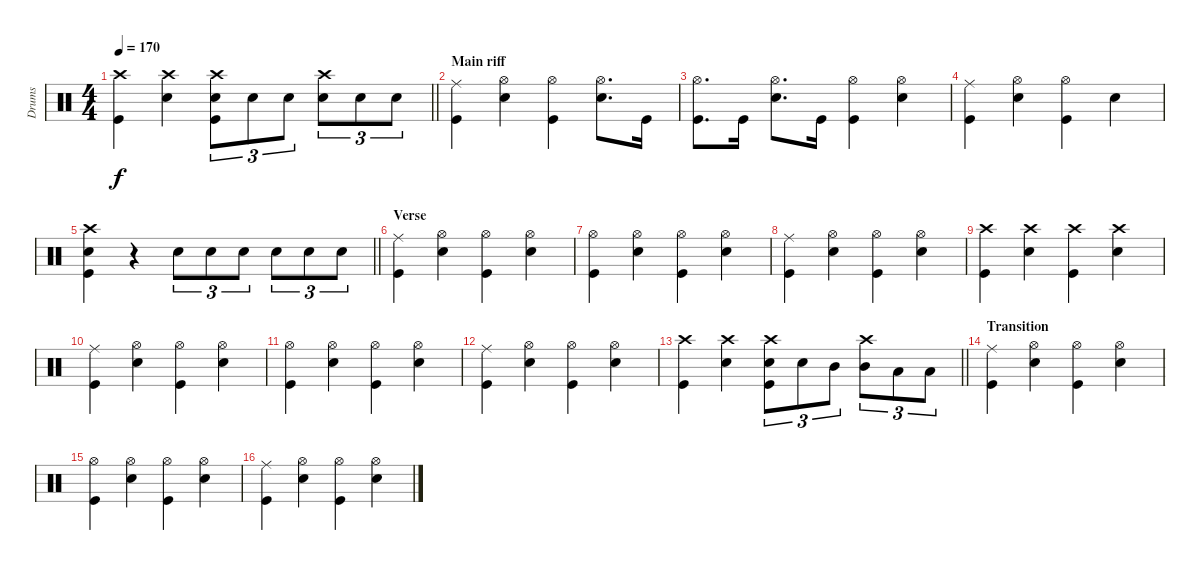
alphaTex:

\track ("Drums" "Drums") {instrument percussion}
\staff {score}
\articulation defaults
\ts (4 4)
\tempo 170
\clef neutral
\barLineRight lightlight
\ks c
("Crash high (hit)" "Kick (hit)").4{dy f} ("Crash high (hit)" "Snare (hit) 2").4 ("Crash high (hit)" "Snare (hit) 2" "Kick (hit)").8{tu (3 2)} "Snare (hit) 2".8{tu (3 2)} "Snare (hit) 2".8{tu (3 2)} ("Crash high (hit)" "Snare (hit) 2").8{tu (3 2)} "Snare (hit) 2".8{tu (3 2)} "Snare (hit) 2".8{tu (3 2)} |
\section ("" "Main riff")
("Ride (middle)" "Kick (hit)").4 ("Hi-Hat (open)" "Snare (hit) 2").4 ("Hi-Hat (open)" "Kick (hit)").4 ("Hi-Hat (open)" "Snare (hit) 2").8{d} "Kick (hit)".16 |
("Hi-Hat (open)" "Kick (hit)").8{d} "Kick (hit)".16 ("Hi-Hat (open)" "Snare (hit) 2").8{d} "Kick (hit)".16 ("Hi-Hat (open)" "Kick (hit)").4 ("Hi-Hat (open)" "Snare (hit) 2").4 |
("Ride (middle)" "Kick (hit)").4 ("Hi-Hat (open)" "Snare (hit) 2").4 ("Hi-Hat (open)" "Kick (hit)").4 "Snare (hit) 2".4 |
\barLineRight lightlight
("Crash high (hit)" "Snare (hit) 2" "Kick (hit)").4 r.4 "Snare (hit) 2".8{tu (3 2)} "Snare (hit) 2".8{tu (3 2)} "Snare (hit) 2".8{tu (3 2)} "Snare (hit) 2".8{tu (3 2)} "Snare (hit) 2".8{tu (3 2)} "Snare (hit) 2".8{tu (3 2)} |
\section ("" "Verse")
("Ride (middle)" "Kick (hit)").4 ("Hi-Hat (open)" "Snare (hit) 2").4 ("Hi-Hat (open)" "Kick (hit)").4 ("Hi-Hat (open)" "Snare (hit) 2").4 |
("Hi-Hat (open)" "Kick (hit)").4 ("Hi-Hat (open)" "Snare (hit) 2").4 ("Hi-Hat (open)" "Kick (hit)").4 ("Hi-Hat (open)" "Snare (hit) 2").4 |
("Ride (middle)" "Kick (hit)").4 ("Hi-Hat (open)" "Snare (hit) 2").4 ("Hi-Hat (open)" "Kick (hit)").4 ("Hi-Hat (open)" "Snare (hit) 2").4 |
("Crash high (hit)" "Kick (hit)").4 ("Crash high (hit)" "Snare (hit) 2").4 ("Crash high (hit)" "Kick (hit)").4 ("Crash high (hit)" "Snare (hit) 2").4 |
("Ride (middle)" "Kick (hit)").4 ("Hi-Hat (open)" "Snare (hit) 2").4 ("Hi-Hat (open)" "Kick (hit)").4 ("Hi-Hat (open)" "Snare (hit) 2").4 |
("Hi-Hat (open)" "Kick (hit)").4 ("Hi-Hat (open)" "Snare (hit) 2").4 ("Hi-Hat (open)" "Kick (hit)").4 ("Hi-Hat (open)" "Snare (hit) 2").4 |
("Ride (middle)" "Kick (hit)").4 ("Hi-Hat (open)" "Snare (hit) 2").4 ("Hi-Hat (open)" "Kick (hit)").4 ("Hi-Hat (open)" "Snare (hit) 2").4 |
\barLineRight lightlight
("Crash high (hit)" "Kick (hit)").4 ("Crash high (hit)" "Snare (hit) 2").4 ("Crash high (hit)" "Snare (hit) 2" "Kick (hit)").8{tu (3 2)} "Snare (hit) 2".8{tu (3 2)} "Mid Tom (hit)".8{tu (3 2)} ("Crash high (hit)" "Mid Tom (hit)").8{tu (3 2)} "Low Tom (hit)".8{tu (3 2)} "Low Tom (hit)".8{tu (3 2)} |
\section ("" "Transition")
("Ride (middle)" "Kick (hit)").4 ("Hi-Hat (open)" "Snare (hit) 2").4 ("Hi-Hat (open)" "Kick (hit)").4 ("Hi-Hat (open)" "Snare (hit) 2").4 |
("Hi-Hat (open)" "Kick (hit)").4 ("Hi-Hat (open)" "Snare (hit) 2").4 ("Hi-Hat (open)" "Kick (hit)").4 ("Hi-Hat (open)" "Snare (hit) 2").4 |
("Ride (middle)" "Kick (hit)").4 ("Hi-Hat (open)" "Snare (hit) 2").4 ("Hi-Hat (open)" "Kick (hit)").4 ("Hi-Hat (open)" "Snare (hit) 2").4
